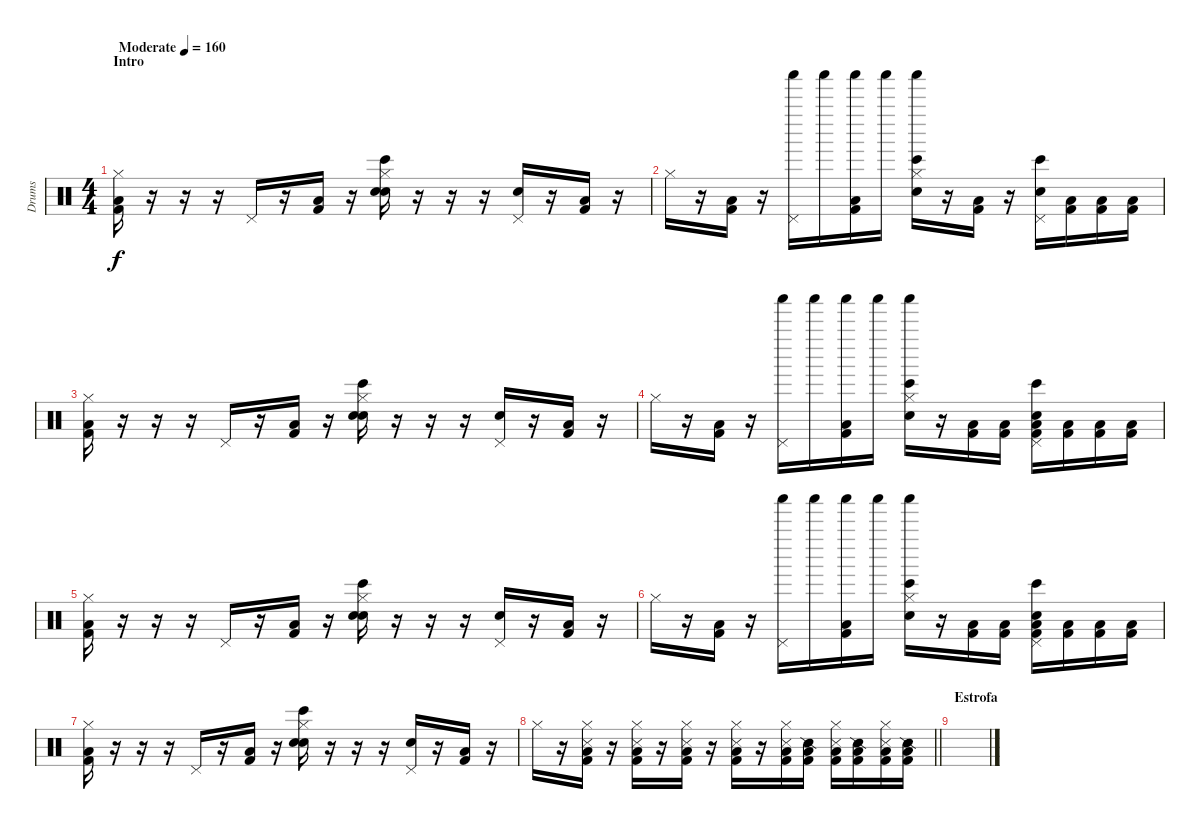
\track ("Drums" "Drums") {instrument percussion}
\staff {score}
\articulation defaults
\ts (4 4)
\section ("" "Intro")
\tempo (160 "Moderate")
\clef neutral
\ks c
("Hi-Hat (closed)" "Low Floor Tom (hit)" "Kick (hit) 2").16{dy f} r.16 r.16 r.16 "Pedal Hi-Hat (hit)".16 r.16 ("Low Floor Tom (hit)" "Kick (hit) 2").16 r.16 ("Metronome (bell)" "Hi-Hat (closed)" "Hand Clap (hit)" "Bongo High (hit)").16 r.16 r.16 r.16 ("Metronome (bell)" "Pedal Hi-Hat (hit)").16 r.16 ("Low Floor Tom (hit)" "Kick (hit) 2").16 r.16 |
"Hi-Hat (closed)".16 r.16 ("Low Floor Tom (hit)" "Kick (hit) 2").16 r.16 ("Shaker (hit)" "Pedal Hi-Hat (hit)").16 "Shaker (hit)".16 ("Shaker (hit)" "Low Floor Tom (hit)" "Kick (hit) 2").16 "Shaker (hit)".16 ("Shaker (hit)" "Hi-Hat (closed)" "Hand Clap (hit)" "Bongo High (hit)").16 r.16 ("Low Floor Tom (hit)" "Kick (hit) 2").16 r.16 ("Pedal Hi-Hat (hit)" "Hand Clap (hit)" "Bongo High (hit)").16 ("Low Floor Tom (hit)" "Kick (hit) 2").16 ("Low Floor Tom (hit)" "Kick (hit) 2").16 ("Low Floor Tom (hit)" "Kick (hit) 2").16 |
("Hi-Hat (closed)" "Low Floor Tom (hit)" "Kick (hit) 2").16 r.16 r.16 r.16 "Pedal Hi-Hat (hit)".16 r.16 ("Low Floor Tom (hit)" "Kick (hit) 2").16 r.16 ("Metronome (bell)" "Hi-Hat (closed)" "Hand Clap (hit)" "Bongo High (hit)").16 r.16 r.16 r.16 ("Metronome (bell)" "Pedal Hi-Hat (hit)").16 r.16 ("Low Floor Tom (hit)" "Kick (hit) 2").16 r.16 |
"Hi-Hat (closed)".16 r.16 ("Low Floor Tom (hit)" "Kick (hit) 2").16 r.16 ("Shaker (hit)" "Pedal Hi-Hat (hit)").16 "Shaker (hit)".16 ("Shaker (hit)" "Low Floor Tom (hit)" "Kick (hit) 2").16 "Shaker (hit)".16 ("Shaker (hit)" "Hi-Hat (closed)" "Hand Clap (hit)" "Bongo High (hit)").16 r.16 ("Low Floor Tom (hit)" "Kick (hit) 2").16 ("Low Floor Tom (hit)" "Kick (hit) 2").16 ("Pedal Hi-Hat (hit)" "Hand Clap (hit)" "Bongo High (hit)" "Low Floor Tom (hit)" "Kick (hit) 2").16 ("Low Floor Tom (hit)" "Kick (hit) 2").16 ("Low Floor Tom (hit)" "Kick (hit) 2").16 ("Low Floor Tom (hit)" "Kick (hit) 2").16 |
("Hi-Hat (closed)" "Low Floor Tom (hit)" "Kick (hit) 2").16 r.16 r.16 r.16 "Pedal Hi-Hat (hit)".16 r.16 ("Low Floor Tom (hit)" "Kick (hit) 2").16 r.16 ("Metronome (bell)" "Hi-Hat (closed)" "Hand Clap (hit)" "Bongo High (hit)").16 r.16 r.16 r.16 ("Metronome (bell)" "Pedal Hi-Hat (hit)").16 r.16 ("Low Floor Tom (hit)" "Kick (hit) 2").16 r.16 |
"Hi-Hat (closed)".16 r.16 ("Low Floor Tom (hit)" "Kick (hit) 2").16 r.16 ("Shaker (hit)" "Pedal Hi-Hat (hit)").16 "Shaker (hit)".16 ("Shaker (hit)" "Low Floor Tom (hit)" "Kick (hit) 2").16 "Shaker (hit)".16 ("Shaker (hit)" "Hi-Hat (closed)" "Hand Clap (hit)" "Bongo High (hit)").16 r.16 ("Low Floor Tom (hit)" "Kick (hit) 2").16 ("Low Floor Tom (hit)" "Kick (hit) 2").16 ("Pedal Hi-Hat (hit)" "Hand Clap (hit)" "Bongo High (hit)" "Low Floor Tom (hit)" "Kick (hit) 2").16 ("Low Floor Tom (hit)" "Kick (hit) 2").16 ("Low Floor Tom (hit)" "Kick (hit) 2").16 ("Low Floor Tom (hit)" "Kick (hit) 2").16 |
("Hi-Hat (closed)" "Low Floor Tom (hit)" "Kick (hit) 2").16 r.16 r.16 r.16 "Pedal Hi-Hat (hit)".16 r.16 ("Low Floor Tom (hit)" "Kick (hit) 2").16 r.16 ("Metronome (bell)" "Hi-Hat (closed)" "Hand Clap (hit)" "Bongo High (hit)").16 r.16 r.16 r.16 ("Metronome (bell)" "Pedal Hi-Hat (hit)").16 r.16 ("Low Floor Tom (hit)" "Kick (hit) 2").16 r.16 |
\barLineRight lightlight "Hi-Hat (closed)".16
r.16 ("Metronome (hit)" "Hi-Hat (closed)" "Low Floor Tom (hit)" "Kick (hit) 2").16 r.16 ("Metronome (hit)" "Hi-Hat (closed)" "Low Floor Tom (hit)" "Kick (hit) 2").16 r.16 ("Metronome (hit)" "Hi-Hat (closed)" "Low Floor Tom (hit)" "Kick (hit) 2").16 r.16 ("Metronome (hit)" "Hi-Hat (closed)" "Low Floor Tom (hit)" "Kick (hit) 2").16 r.16 ("Metronome (hit)" "Hi-Hat (closed)" "Low Floor Tom (hit)" "Kick (hit) 2").16 ("Snare (side stick) 2" "Low Floor Tom (hit)" "Kick (hit) 2").16 ("Metronome (hit)" "Hi-Hat (closed)" "Low Floor Tom (hit)" "Kick (hit) 2").16 ("Snare (side stick) 2" "Low Floor Tom (hit)" "Kick (hit) 2").16 ("Metronome (hit)" "Hi-Hat (closed)" "Low Floor Tom (hit)" "Kick (hit) 2").16 ("Snare (side stick) 2" "Low Floor Tom (hit)" "Kick (hit) 2").16 |
\section ("" "Estrofa")
